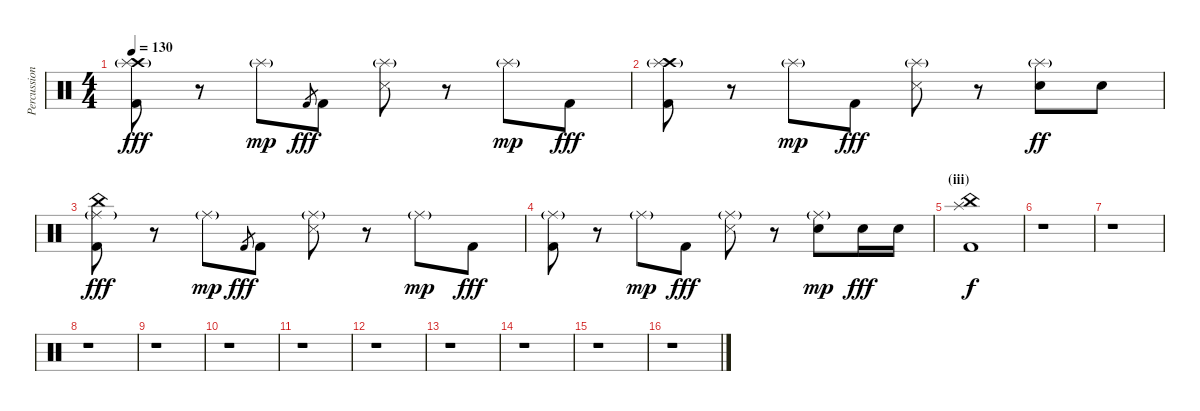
\track ("Percussion" "Percussion") {instrument percussion}
\staff {score}
\articulation defaults
\ts (4 4)
\tempo 130
\clef neutral
\ks c
("Crash high (hit)" "Splash (hit)"{g} "Kick (hit) 2").8{dy fff} r.8 "Splash (hit)"{g}.8{dy mp} "Kick (hit) 2".8{gr dy fff} "Kick (hit) 2".8 ("Splash (hit)"{g} "Snare (side stick) 3").8 r.8 "Splash (hit)"{g}.8{dy mp} "Kick (hit) 2".8{dy fff} |
("Crash high (hit)" "Splash (hit)"{g} "Kick (hit) 2").8 r.8 "Splash (hit)"{g}.8{dy mp} "Kick (hit) 2".8{dy fff} ("Splash (hit)"{g} "Snare (side stick) 3").8 r.8 ("Splash (hit)"{g} "Electric Snare (hit)").8{dy ff} "Electric Snare (hit)".8 |
("China (hit)" "Ride (middle)"{g} "Kick (hit) 2").8{dy fff} r.8 "Ride (middle)"{g}.8{dy mp} "Kick (hit) 2".8{gr dy fff} "Kick (hit) 2".8 ("Ride (middle)"{g} "Snare (side stick) 3").8 r.8 "Ride (middle)"{g}.8{dy mp} "Kick (hit) 2".8{dy fff} |
("Ride (middle)"{g} "Kick (hit) 2").8 r.8 "Ride (middle)"{g}.8{dy mp} "Kick (hit) 2".8{dy fff} ("Ride (middle)"{g} "Snare (side stick) 3").8 r.8 ("Ride (middle)"{g} "Electric Snare (hit)").8{dy mp} "Electric Snare (hit)".16{dy fff} "Electric Snare (hit)".16 |
\section ("" "(iii)")
("China (hit)" "Splash (hit)" "Kick (hit) 2").1{dy f} |
r.1 |
r.1 |
r.1 |
r.1 |
r.1 |
r.1 |
r.1 |
r.1 |
r.1 |
r.1 |
r.1
